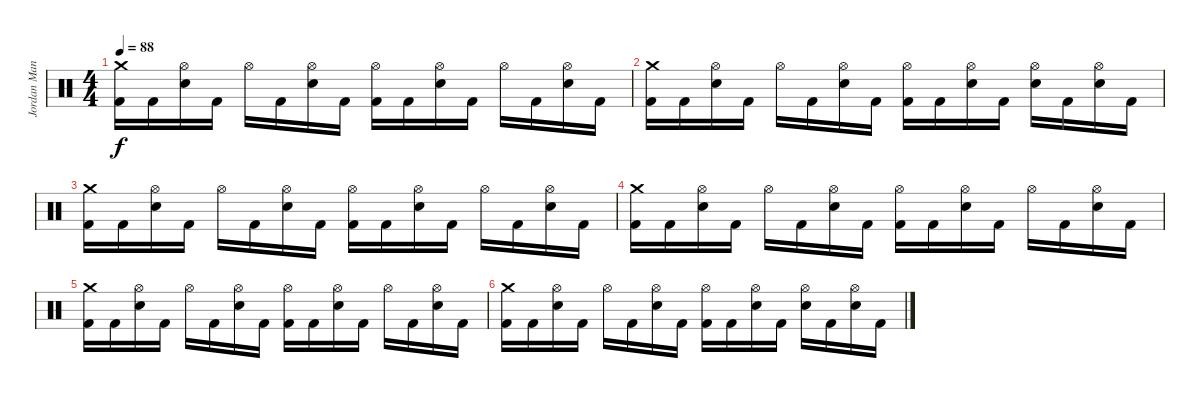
\track ("Jordan Mancino" "Jordan Man") {instrument percussion}
\staff {score}
\articulation defaults
\ts (4 4)
\tempo 88
\clef neutral
\ks c
("Crash medium (hit)" "Kick (hit) 2").16{dy f} "Kick (hit) 2".16 ("Hi-Hat (open)" "Electric Snare (hit)").16 "Kick (hit) 2".16 "Hi-Hat (open)".16 "Kick (hit) 2".16 ("Hi-Hat (open)" "Electric Snare (hit)").16 "Kick (hit) 2".16 ("Hi-Hat (open)" "Kick (hit) 2").16 "Kick (hit) 2".16 ("Hi-Hat (open)" "Electric Snare (hit)").16 "Kick (hit) 2".16 "Hi-Hat (open)".16 "Kick (hit) 2".16 ("Hi-Hat (open)" "Electric Snare (hit)").16 "Kick (hit) 2".16 |
("Crash medium (hit)" "Kick (hit) 2").16 "Kick (hit) 2".16 ("Hi-Hat (open)" "Electric Snare (hit)").16 "Kick (hit) 2".16 "Hi-Hat (open)".16 "Kick (hit) 2".16 ("Hi-Hat (open)" "Electric Snare (hit)").16 "Kick (hit) 2".16 ("Hi-Hat (open)" "Kick (hit) 2").16 "Kick (hit) 2".16 ("Hi-Hat (open)" "Electric Snare (hit)").16 "Kick (hit) 2".16 ("Hi-Hat (open)" "Electric Snare (hit)").16 "Kick (hit) 2".16 ("Hi-Hat (open)" "Electric Snare (hit)").16 "Kick (hit) 2".16 |
("Crash medium (hit)" "Kick (hit) 2").16 "Kick (hit) 2".16 ("Hi-Hat (open)" "Electric Snare (hit)").16 "Kick (hit) 2".16 "Hi-Hat (open)".16 "Kick (hit) 2".16 ("Hi-Hat (open)" "Electric Snare (hit)").16 "Kick (hit) 2".16 ("Hi-Hat (open)" "Kick (hit) 2").16 "Kick (hit) 2".16 ("Hi-Hat (open)" "Electric Snare (hit)").16 "Kick (hit) 2".16 "Hi-Hat (open)".16 "Kick (hit) 2".16 ("Hi-Hat (open)" "Electric Snare (hit)").16 "Kick (hit) 2".16 |
("Crash medium (hit)" "Kick (hit) 2").16 "Kick (hit) 2".16 ("Hi-Hat (open)" "Electric Snare (hit)").16 "Kick (hit) 2".16 "Hi-Hat (open)".16 "Kick (hit) 2".16 ("Hi-Hat (open)" "Electric Snare (hit)").16 "Kick (hit) 2".16 ("Hi-Hat (open)" "Kick (hit) 2").16 "Kick (hit) 2".16 ("Hi-Hat (open)" "Electric Snare (hit)").16 "Kick (hit) 2".16 "Hi-Hat (open)".16 "Kick (hit) 2".16 ("Hi-Hat (open)" "Electric Snare (hit)").16 "Kick (hit) 2".16 |
("Crash medium (hit)" "Kick (hit) 2").16 "Kick (hit) 2".16 ("Hi-Hat (open)" "Electric Snare (hit)").16 "Kick (hit) 2".16 "Hi-Hat (open)".16 "Kick (hit) 2".16 ("Hi-Hat (open)" "Electric Snare (hit)").16 "Kick (hit) 2".16 ("Hi-Hat (open)" "Kick (hit) 2").16 "Kick (hit) 2".16 ("Hi-Hat (open)" "Electric Snare (hit)").16 "Kick (hit) 2".16 "Hi-Hat (open)".16 "Kick (hit) 2".16 ("Hi-Hat (open)" "Electric Snare (hit)").16 "Kick (hit) 2".16 |
("Crash medium (hit)" "Kick (hit) 2").16 "Kick (hit) 2".16 ("Hi-Hat (open)" "Electric Snare (hit)").16 "Kick (hit) 2".16 "Hi-Hat (open)".16 "Kick (hit) 2".16 ("Hi-Hat (open)" "Electric Snare (hit)").16 "Kick (hit) 2".16 ("Hi-Hat (open)" "Kick (hit) 2").16 "Kick (hit) 2".16 ("Hi-Hat (open)" "Electric Snare (hit)").16 "Kick (hit) 2".16 ("Hi-Hat (open)" "Electric Snare (hit)").16 "Kick (hit) 2".16 ("Hi-Hat (open)" "Electric Snare (hit)").16 "Kick (hit) 2".16
